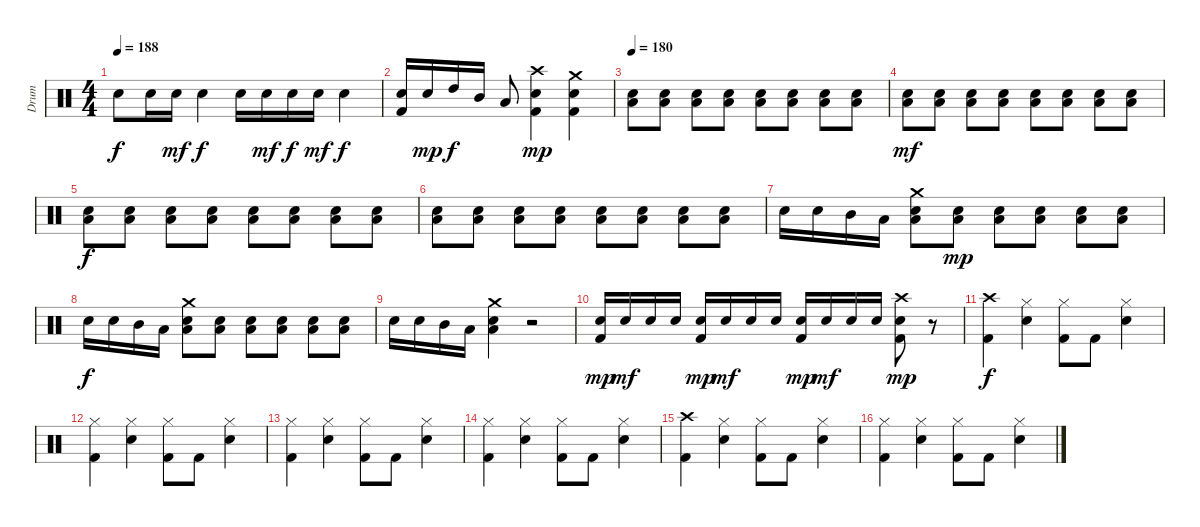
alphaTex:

\track ("Drum" "Drum") {instrument percussion}
\staff {score}
\articulation defaults
\ts (4 4)
\tempo 188
\clef neutral
\ks c "Snare (hit)"{t}.8{dy f} "Snare (hit) 2".16 "Snare (hit) 2".16{dy mf} "Snare (hit) 2".4{dy f} "Snare (hit) 2".16 "Snare (hit) 2".16{dy mf} "Snare (hit) 2".16{dy f} "Snare (hit) 2".16{dy mf} "Snare (hit) 2".4{dy f}
|
("Snare (hit) 2" "Kick (hit) 2").16 "Snare (hit) 2".16{dy mp} "High Tom (hit)".16{dy f} "Mid Tom (hit)".16 "Low Tom (hit)".8 ("Crash high (hit)" "Snare (hit) 2" "Kick (hit) 2").4{dy mp} ("Crash medium (hit)" "Snare (hit) 2" "Kick (hit) 2").4 |
\tempo 180
("Low Tom (hit)" "Snare (hit) 2").8 ("Low Tom (hit)" "Snare (hit) 2").8 ("Low Tom (hit)" "Snare (hit) 2").8 ("Low Tom (hit)" "Snare (hit) 2").8 ("Low Tom (hit)" "Snare (hit) 2").8 ("Low Tom (hit)" "Snare (hit) 2").8 ("Low Tom (hit)" "Snare (hit) 2").8 ("Low Tom (hit)" "Snare (hit) 2").8 |
("Low Tom (hit)" "Snare (hit) 2").8{dy mf} ("Low Tom (hit)" "Snare (hit) 2").8 ("Low Tom (hit)" "Snare (hit) 2").8 ("Low Tom (hit)" "Snare (hit) 2").8 ("Low Tom (hit)" "Snare (hit) 2").8 ("Low Tom (hit)" "Snare (hit) 2").8 ("Low Tom (hit)" "Snare (hit) 2").8 ("Low Tom (hit)" "Snare (hit) 2").8 |
("Low Tom (hit)" "Snare (hit) 2").8{dy f} ("Low Tom (hit)" "Snare (hit) 2").8 ("Low Tom (hit)" "Snare (hit) 2").8 ("Low Tom (hit)" "Snare (hit) 2").8 ("Low Tom (hit)" "Snare (hit) 2").8 ("Low Tom (hit)" "Snare (hit) 2").8 ("Low Tom (hit)" "Snare (hit) 2").8 ("Low Tom (hit)" "Snare (hit) 2").8 |
("Low Tom (hit)" "Snare (hit) 2").8 ("Low Tom (hit)" "Snare (hit) 2").8 ("Low Tom (hit)" "Snare (hit) 2").8 ("Low Tom (hit)" "Snare (hit) 2").8 ("Low Tom (hit)" "Snare (hit) 2").8 ("Low Tom (hit)" "Snare (hit) 2").8 ("Low Tom (hit)" "Snare (hit) 2").8 ("Low Tom (hit)" "Snare (hit) 2").8 |
"Snare (hit) 2".16 "Snare (hit) 2".16 "Mid Tom (hit)".16 "Low Tom (hit)".16 ("Crash medium (hit)" "Low Tom (hit)" "Snare (hit) 2").8 ("Low Tom (hit)" "Snare (hit) 2").8{dy mp} ("Low Tom (hit)" "Snare (hit) 2").8 ("Low Tom (hit)" "Snare (hit) 2").8 ("Low Tom (hit)" "Snare (hit) 2").8 ("Low Tom (hit)" "Snare (hit) 2").8 |
"Snare (hit) 2".16{dy f} "Snare (hit) 2".16 "Mid Tom (hit)".16 "Low Tom (hit)".16 ("Crash medium (hit)" "Low Tom (hit)" "Snare (hit) 2").8 ("Low Tom (hit)" "Snare (hit) 2").8 ("Low Tom (hit)" "Snare (hit) 2").8 ("Low Tom (hit)" "Snare (hit) 2").8 ("Low Tom (hit)" "Snare (hit) 2").8 ("Low Tom (hit)" "Snare (hit) 2").8 |
"Snare (hit) 2".16 "Snare (hit) 2".16 "Mid Tom (hit)".16 "Low Tom (hit)".16 ("Crash medium (hit)" "Low Tom (hit)" "Snare (hit) 2").4 r.2 |
("Snare (hit) 2" "Kick (hit) 2").16{dy mp} "Snare (hit) 2".16{dy mf} "Snare (hit) 2".16 "Snare (hit) 2".16 ("Snare (hit) 2" "Kick (hit) 2").16{dy mp} "Snare (hit) 2".16{dy mf} "Snare (hit) 2".16 "Snare (hit) 2".16 ("Snare (hit) 2" "Kick (hit) 2").16{dy mp} "Snare (hit) 2".16{dy mf} "Snare (hit) 2".16 "Snare (hit) 2".16 ("Crash high (hit)" "Snare (hit) 2" "Kick (hit) 2").8{dy mp} r.8 |
("Crash high (hit)" "Kick (hit) 2").4{dy f} ("Hi-Hat (closed)" "Snare (hit) 2").4 ("Hi-Hat (closed)" "Kick (hit) 2").8 "Kick (hit) 2".8 ("Hi-Hat (closed)" "Snare (hit) 2").4 |
("Hi-Hat (closed)" "Kick (hit) 2").4 ("Hi-Hat (closed)" "Snare (hit) 2").4 ("Hi-Hat (closed)" "Kick (hit) 2").8 "Kick (hit) 2".8 ("Hi-Hat (closed)" "Snare (hit) 2").4 |
("Hi-Hat (closed)" "Kick (hit) 2").4 ("Hi-Hat (closed)" "Snare (hit) 2").4 ("Hi-Hat (closed)" "Kick (hit) 2").8 "Kick (hit) 2".8 ("Hi-Hat (closed)" "Snare (hit) 2").4 |
("Hi-Hat (closed)" "Kick (hit) 2").4 ("Hi-Hat (closed)" "Snare (hit) 2").4 ("Hi-Hat (closed)" "Kick (hit) 2").8 "Kick (hit) 2".8 ("Hi-Hat (closed)" "Snare (hit) 2").4 |
("Crash high (hit)" "Kick (hit) 2").4 ("Hi-Hat (closed)" "Snare (hit) 2").4 ("Hi-Hat (closed)" "Kick (hit) 2").8 "Kick (hit) 2".8 ("Hi-Hat (closed)" "Snare (hit) 2").4 |
("Hi-Hat (closed)" "Kick (hit) 2").4 ("Hi-Hat (closed)" "Snare (hit) 2").4 ("Hi-Hat (closed)" "Kick (hit) 2").8 "Kick (hit) 2".8 ("Hi-Hat (closed)" "Snare (hit) 2").4
